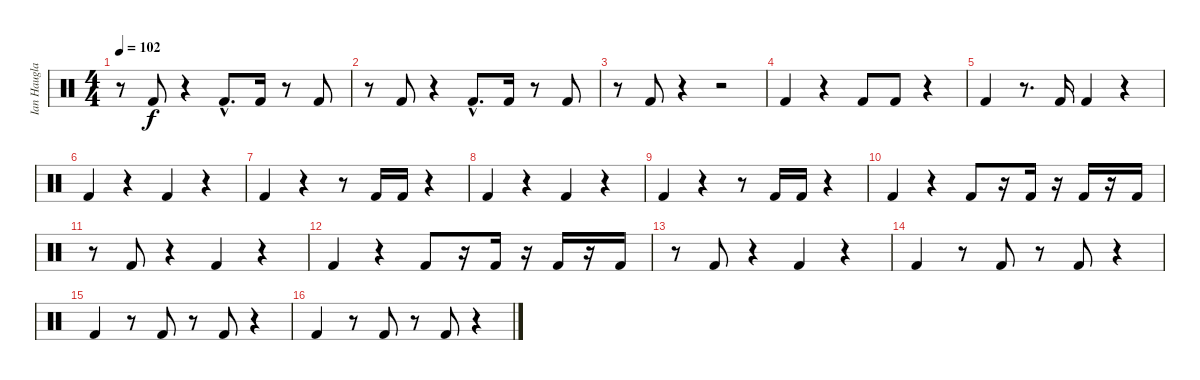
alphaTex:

\track ("Ian Haugland Drums" "Ian Haugla") {instrument percussion}
\staff {score}
\articulation defaults
\ts (4 4)
\tempo 102
\clef neutral
\ks c
r.8{dy f} "Kick (hit) 2".8 r.4 "Kick (hit) 2"{hac}.8{d} "Kick (hit) 2".16 r.8 "Kick (hit) 2".8 |
r.8 "Kick (hit) 2".8 r.4 "Kick (hit) 2"{hac}.8{d} "Kick (hit) 2".16 r.8 "Kick (hit) 2".8 |
r.8 "Kick (hit) 2".8 r.4 r.2 |
"Kick (hit) 2".4 r.4 "Kick (hit) 2".8 "Kick (hit) 2".8 r.4 |
"Kick (hit) 2".4 r.8{d} "Kick (hit) 2".16 "Kick (hit) 2".4 r.4 |
"Kick (hit) 2".4 r.4 "Kick (hit) 2".4 r.4 |
"Kick (hit) 2".4 r.4 r.8 "Kick (hit) 2".16 "Kick (hit) 2".16 r.4 |
"Kick (hit) 2".4 r.4 "Kick (hit) 2".4 r.4 |
"Kick (hit) 2".4 r.4 r.8 "Kick (hit) 2".16 "Kick (hit) 2".16 r.4 |
"Kick (hit) 2".4 r.4 "Kick (hit) 2".8 r.16 "Kick (hit) 2".16 r.16 "Kick (hit) 2".16 r.16 "Kick (hit) 2".16 |
r.8 "Kick (hit) 2".8 r.4 "Kick (hit) 2".4 r.4 |
"Kick (hit) 2".4 r.4 "Kick (hit) 2".8 r.16 "Kick (hit) 2".16 r.16 "Kick (hit) 2".16 r.16 "Kick (hit) 2".16 |
r.8 "Kick (hit) 2".8 r.4 "Kick (hit) 2".4 r.4 |
"Kick (hit) 2".4 r.8 "Kick (hit) 2".8 r.8 "Kick (hit) 2".8 r.4 |
"Kick (hit) 2".4 r.8 "Kick (hit) 2".8 r.8 "Kick (hit) 2".8 r.4 |
"Kick (hit) 2".4 r.8 "Kick (hit) 2".8 r.8 "Kick (hit) 2".8 r.4
